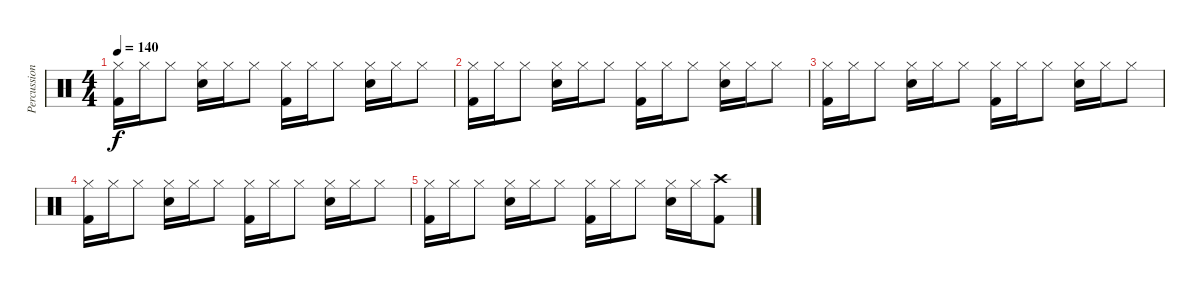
\track ("Percussion" "Percussion") {instrument percussion}
\staff {score}
\articulation defaults
\ts (4 4)
\tempo 140
\clef neutral
\ks c
("Hi-Hat (closed)" "Kick (hit) 2").16{dy f} "Hi-Hat (closed)".16 "Hi-Hat (closed)".8 ("Hi-Hat (closed)" "Electric Snare (hit)").16 "Hi-Hat (closed)".16 "Hi-Hat (closed)".8 ("Hi-Hat (closed)" "Kick (hit) 2").16 "Hi-Hat (closed)".16 "Hi-Hat (closed)".8 ("Hi-Hat (closed)" "Electric Snare (hit)").16 "Hi-Hat (closed)".16 "Hi-Hat (closed)".8 |
("Hi-Hat (closed)" "Kick (hit) 2").16 "Hi-Hat (closed)".16 "Hi-Hat (closed)".8 ("Hi-Hat (closed)" "Electric Snare (hit)").16 "Hi-Hat (closed)".16 "Hi-Hat (closed)".8 ("Hi-Hat (closed)" "Kick (hit) 2").16 "Hi-Hat (closed)".16 "Hi-Hat (closed)".8 ("Hi-Hat (closed)" "Electric Snare (hit)").16 "Hi-Hat (closed)".16 "Hi-Hat (closed)".8 |
("Hi-Hat (closed)" "Kick (hit) 2").16 "Hi-Hat (closed)".16 "Hi-Hat (closed)".8 ("Hi-Hat (closed)" "Electric Snare (hit)").16 "Hi-Hat (closed)".16 "Hi-Hat (closed)".8 ("Hi-Hat (closed)" "Kick (hit) 2").16 "Hi-Hat (closed)".16 "Hi-Hat (closed)".8 ("Hi-Hat (closed)" "Electric Snare (hit)").16 "Hi-Hat (closed)".16 "Hi-Hat (closed)".8 |
("Hi-Hat (closed)" "Kick (hit) 2").16 "Hi-Hat (closed)".16 "Hi-Hat (closed)".8 ("Hi-Hat (closed)" "Electric Snare (hit)").16 "Hi-Hat (closed)".16 "Hi-Hat (closed)".8 ("Hi-Hat (closed)" "Kick (hit) 2").16 "Hi-Hat (closed)".16 "Hi-Hat (closed)".8 ("Hi-Hat (closed)" "Electric Snare (hit)").16 "Hi-Hat (closed)".16 "Hi-Hat (closed)".8 |
("Hi-Hat (closed)" "Kick (hit) 2").16 "Hi-Hat (closed)".16 "Hi-Hat (closed)".8 ("Hi-Hat (closed)" "Electric Snare (hit)").16 "Hi-Hat (closed)".16 "Hi-Hat (closed)".8 ("Hi-Hat (closed)" "Kick (hit) 2").16 "Hi-Hat (closed)".16 "Hi-Hat (closed)".8 ("Hi-Hat (closed)" "Electric Snare (hit)").16 "Hi-Hat (closed)".16 ("Crash high (hit)" "Kick (hit) 2").8
